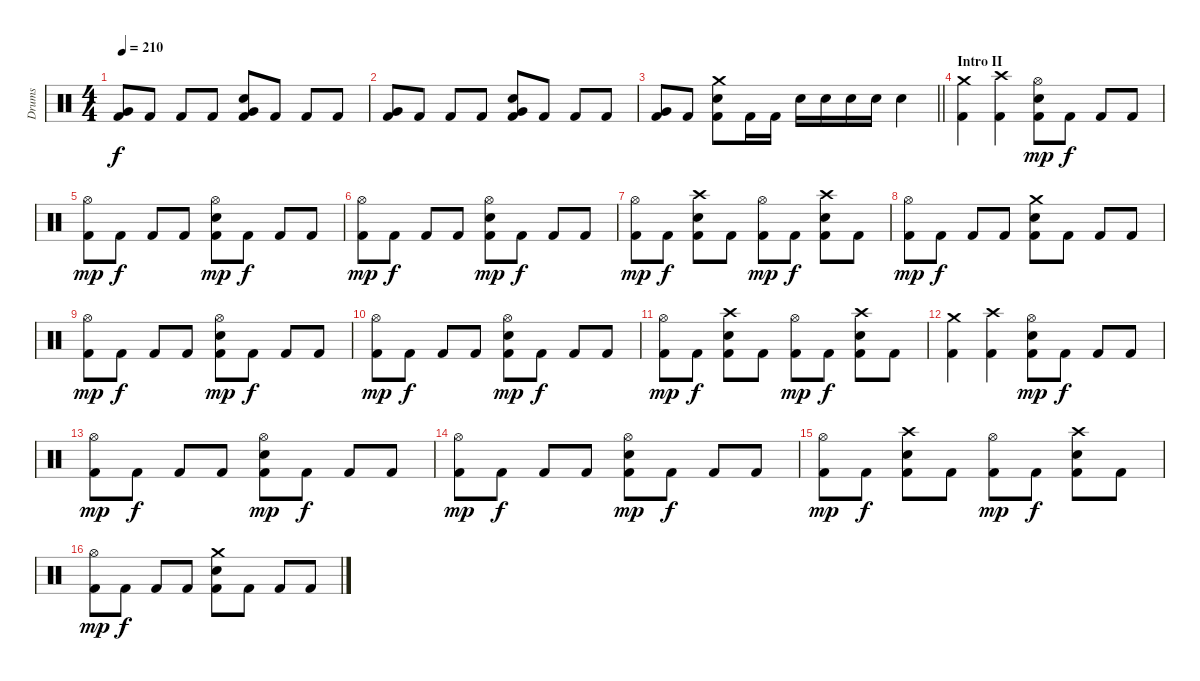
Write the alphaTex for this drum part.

\track ("Drums" "Drums") {instrument percussion}
\staff {score}
\articulation defaults
\ts (4 4)
\tempo 210
\clef neutral
\ks c
("Very Low Tom (hit)" "Kick (hit) 2").8{dy f} "Kick (hit) 2".8 "Kick (hit) 2".8 "Kick (hit) 2".8 ("Very Low Tom (hit)" "Snare (hit) 2" "Kick (hit) 2").8 "Kick (hit) 2".8 "Kick (hit) 2".8 "Kick (hit) 2".8 |
("Very Low Tom (hit)" "Kick (hit) 2").8 "Kick (hit) 2".8 "Kick (hit) 2".8 "Kick (hit) 2".8 ("Very Low Tom (hit)" "Snare (hit) 2" "Kick (hit) 2").8 "Kick (hit) 2".8 "Kick (hit) 2".8 "Kick (hit) 2".8 |
\barLineRight lightlight
("Very Low Tom (hit)" "Kick (hit) 2").8 "Kick (hit) 2".8 ("Crash medium (hit)" "Snare (hit) 2" "Kick (hit) 2").8 "Kick (hit) 2".16 "Kick (hit) 2".16 "Snare (hit) 2".16 "Snare (hit) 2".16 "Snare (hit) 2".16 "Snare (hit) 2".16 "Snare (hit) 2".4 |
\section ("" "Intro II")
("Crash medium (hit)" "Kick (hit) 2").4 ("Crash high (hit)" "Kick (hit) 2").4 ("Hi-Hat (open)" "Snare (hit) 2" "Kick (hit) 2").8{dy mp} "Kick (hit) 2".8{dy f} "Kick (hit) 2".8 "Kick (hit) 2".8 |
("Hi-Hat (open)" "Kick (hit) 2").8{dy mp} "Kick (hit) 2".8{dy f} "Kick (hit) 2".8 "Kick (hit) 2".8 ("Hi-Hat (open)" "Snare (hit) 2" "Kick (hit) 2").8{dy mp} "Kick (hit) 2".8{dy f} "Kick (hit) 2".8 "Kick (hit) 2".8 |
("Hi-Hat (open)" "Kick (hit) 2").8{dy mp} "Kick (hit) 2".8{dy f} "Kick (hit) 2".8 "Kick (hit) 2".8 ("Hi-Hat (open)" "Snare (hit) 2" "Kick (hit) 2").8{dy mp} "Kick (hit) 2".8{dy f} "Kick (hit) 2".8 "Kick (hit) 2".8 |
("Hi-Hat (open)" "Kick (hit) 2").8{dy mp} "Kick (hit) 2".8{dy f} ("Crash high (hit)" "Snare (hit) 2" "Kick (hit) 2").8 "Kick (hit) 2".8 ("Hi-Hat (open)" "Kick (hit) 2").8{dy mp} "Kick (hit) 2".8{dy f} ("Crash high (hit)" "Snare (hit) 2" "Kick (hit) 2").8 "Kick (hit) 2".8 |
("Hi-Hat (open)" "Kick (hit) 2").8{dy mp} "Kick (hit) 2".8{dy f} "Kick (hit) 2".8 "Kick (hit) 2".8 ("Crash medium (hit)" "Snare (hit) 2" "Kick (hit) 2").8 "Kick (hit) 2".8 "Kick (hit) 2".8 "Kick (hit) 2".8 |
("Hi-Hat (open)" "Kick (hit) 2").8{dy mp} "Kick (hit) 2".8{dy f} "Kick (hit) 2".8 "Kick (hit) 2".8 ("Hi-Hat (open)" "Snare (hit) 2" "Kick (hit) 2").8{dy mp} "Kick (hit) 2".8{dy f} "Kick (hit) 2".8 "Kick (hit) 2".8 |
("Hi-Hat (open)" "Kick (hit) 2").8{dy mp} "Kick (hit) 2".8{dy f} "Kick (hit) 2".8 "Kick (hit) 2".8 ("Hi-Hat (open)" "Snare (hit) 2" "Kick (hit) 2").8{dy mp} "Kick (hit) 2".8{dy f} "Kick (hit) 2".8 "Kick (hit) 2".8 |
("Hi-Hat (open)" "Kick (hit) 2").8{dy mp} "Kick (hit) 2".8{dy f} ("Crash high (hit)" "Snare (hit) 2" "Kick (hit) 2").8 "Kick (hit) 2".8 ("Hi-Hat (open)" "Kick (hit) 2").8{dy mp} "Kick (hit) 2".8{dy f} ("Crash high (hit)" "Snare (hit) 2" "Kick (hit) 2").8 "Kick (hit) 2".8 |
("Crash medium (hit)" "Kick (hit) 2").4 ("Crash high (hit)" "Kick (hit) 2").4 ("Hi-Hat (open)" "Snare (hit) 2" "Kick (hit) 2").8{dy mp} "Kick (hit) 2".8{dy f} "Kick (hit) 2".8 "Kick (hit) 2".8 |
("Hi-Hat (open)" "Kick (hit) 2").8{dy mp} "Kick (hit) 2".8{dy f} "Kick (hit) 2".8 "Kick (hit) 2".8 ("Hi-Hat (open)" "Snare (hit) 2" "Kick (hit) 2").8{dy mp} "Kick (hit) 2".8{dy f} "Kick (hit) 2".8 "Kick (hit) 2".8 |
("Hi-Hat (open)" "Kick (hit) 2").8{dy mp} "Kick (hit) 2".8{dy f} "Kick (hit) 2".8 "Kick (hit) 2".8 ("Hi-Hat (open)" "Snare (hit) 2" "Kick (hit) 2").8{dy mp} "Kick (hit) 2".8{dy f} "Kick (hit) 2".8 "Kick (hit) 2".8 |
("Hi-Hat (open)" "Kick (hit) 2").8{dy mp} "Kick (hit) 2".8{dy f} ("Crash high (hit)" "Snare (hit) 2" "Kick (hit) 2").8 "Kick (hit) 2".8 ("Hi-Hat (open)" "Kick (hit) 2").8{dy mp} "Kick (hit) 2".8{dy f} ("Crash high (hit)" "Snare (hit) 2" "Kick (hit) 2").8 "Kick (hit) 2".8 |
("Hi-Hat (open)" "Kick (hit) 2").8{dy mp} "Kick (hit) 2".8{dy f} "Kick (hit) 2".8 "Kick (hit) 2".8 ("Crash medium (hit)" "Snare (hit) 2" "Kick (hit) 2").8 "Kick (hit) 2".8 "Kick (hit) 2".8 "Kick (hit) 2".8
